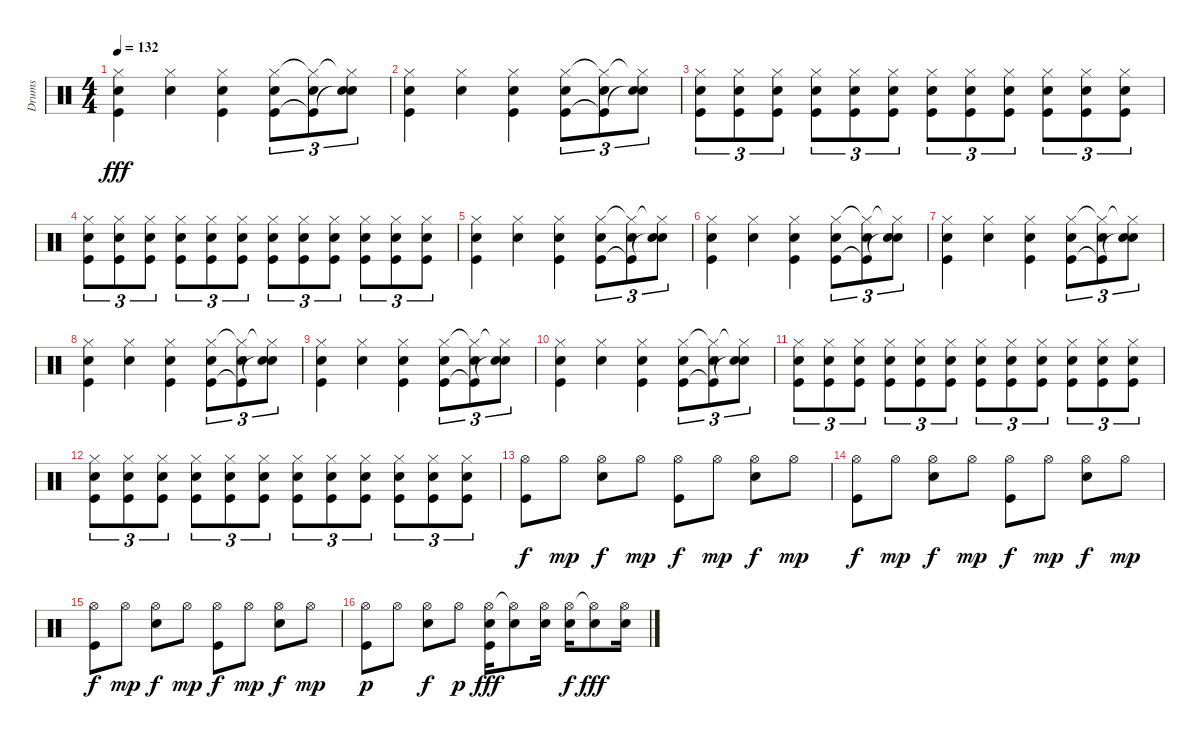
\track ("Drums" "Drums") {instrument percussion}
\staff {score}
\articulation defaults
\ts (4 4)
\tempo 132
\clef neutral
\ks c
("Hi-Hat (closed)" "Snare (hit) 2" "Kick (hit)").4{dy fff} ("Hi-Hat (closed)" "Snare (hit) 2").4 ("Hi-Hat (closed)" "Snare (hit) 2" "Kick (hit)").4 ("Hi-Hat (closed)" "Snare (hit) 2" "Kick (hit)").8{tu (3 2)} ("Hi-Hat (closed)"{t} "Snare (hit) 2" "Kick (hit)"{t}).8{tu (3 2)} ("Hi-Hat (closed)"{t} "Snare (hit) 2" "Snare (hit)"{t}).8{tu (3 2)} |
("Hi-Hat (closed)" "Snare (hit) 2" "Kick (hit)").4 ("Hi-Hat (closed)" "Snare (hit) 2").4 ("Hi-Hat (closed)" "Snare (hit) 2" "Kick (hit)").4 ("Hi-Hat (closed)" "Snare (hit) 2" "Kick (hit)").8{tu (3 2)} ("Hi-Hat (closed)"{t} "Snare (hit) 2" "Kick (hit)"{t}).8{tu (3 2)} ("Hi-Hat (closed)"{t} "Snare (hit) 2" "Snare (hit)"{t}).8{tu (3 2)} |
("Hi-Hat (closed)" "Snare (hit) 2" "Kick (hit)").8{tu (3 2)} ("Hi-Hat (closed)" "Snare (hit) 2" "Kick (hit)").8{tu (3 2)} ("Hi-Hat (closed)" "Snare (hit) 2" "Kick (hit)").8{tu (3 2)} ("Hi-Hat (closed)" "Snare (hit) 2" "Kick (hit)").8{tu (3 2)} ("Hi-Hat (closed)" "Snare (hit) 2" "Kick (hit)").8{tu (3 2)} ("Hi-Hat (closed)" "Snare (hit) 2" "Kick (hit)").8{tu (3 2)} ("Hi-Hat (closed)" "Snare (hit) 2" "Kick (hit)").8{tu (3 2)} ("Hi-Hat (closed)" "Snare (hit) 2" "Kick (hit)").8{tu (3 2)} ("Hi-Hat (closed)" "Snare (hit) 2" "Kick (hit)").8{tu (3 2)} ("Hi-Hat (closed)" "Snare (hit) 2" "Kick (hit)").8{tu (3 2)} ("Hi-Hat (closed)" "Snare (hit) 2" "Kick (hit)").8{tu (3 2)} ("Hi-Hat (closed)" "Snare (hit) 2" "Kick (hit)").8{tu (3 2)} |
("Hi-Hat (closed)" "Snare (hit) 2" "Kick (hit)").8{tu (3 2)} ("Hi-Hat (closed)" "Snare (hit) 2" "Kick (hit)").8{tu (3 2)} ("Hi-Hat (closed)" "Snare (hit) 2" "Kick (hit)").8{tu (3 2)} ("Hi-Hat (closed)" "Snare (hit) 2" "Kick (hit)").8{tu (3 2)} ("Hi-Hat (closed)" "Snare (hit) 2" "Kick (hit)").8{tu (3 2)} ("Hi-Hat (closed)" "Snare (hit) 2" "Kick (hit)").8{tu (3 2)} ("Hi-Hat (closed)" "Snare (hit) 2" "Kick (hit)").8{tu (3 2)} ("Hi-Hat (closed)" "Snare (hit) 2" "Kick (hit)").8{tu (3 2)} ("Hi-Hat (closed)" "Snare (hit) 2" "Kick (hit)").8{tu (3 2)} ("Hi-Hat (closed)" "Snare (hit) 2" "Kick (hit)").8{tu (3 2)} ("Hi-Hat (closed)" "Snare (hit) 2" "Kick (hit)").8{tu (3 2)} ("Hi-Hat (closed)" "Snare (hit) 2" "Kick (hit)").8{tu (3 2)} |
("Hi-Hat (closed)" "Snare (hit) 2" "Kick (hit)").4 ("Hi-Hat (closed)" "Snare (hit) 2").4 ("Hi-Hat (closed)" "Snare (hit) 2" "Kick (hit)").4 ("Hi-Hat (closed)" "Snare (hit) 2" "Kick (hit)").8{tu (3 2)} ("Hi-Hat (closed)"{t} "Snare (hit) 2" "Kick (hit)"{t}).8{tu (3 2)} ("Hi-Hat (closed)"{t} "Snare (hit) 2" "Snare (hit)"{t}).8{tu (3 2)} |
("Hi-Hat (closed)" "Snare (hit) 2" "Kick (hit)").4 ("Hi-Hat (closed)" "Snare (hit) 2").4 ("Hi-Hat (closed)" "Snare (hit) 2" "Kick (hit)").4 ("Hi-Hat (closed)" "Snare (hit) 2" "Kick (hit)").8{tu (3 2)} ("Hi-Hat (closed)"{t} "Snare (hit) 2" "Kick (hit)"{t}).8{tu (3 2)} ("Hi-Hat (closed)"{t} "Snare (hit) 2" "Snare (hit)"{t}).8{tu (3 2)} |
("Hi-Hat (closed)" "Snare (hit) 2" "Kick (hit)").4 ("Hi-Hat (closed)" "Snare (hit) 2").4 ("Hi-Hat (closed)" "Snare (hit) 2" "Kick (hit)").4 ("Hi-Hat (closed)" "Snare (hit) 2" "Kick (hit)").8{tu (3 2)} ("Hi-Hat (closed)"{t} "Snare (hit) 2" "Kick (hit)"{t}).8{tu (3 2)} ("Hi-Hat (closed)"{t} "Snare (hit) 2" "Snare (hit)"{t}).8{tu (3 2)} |
("Hi-Hat (closed)" "Snare (hit) 2" "Kick (hit)").4 ("Hi-Hat (closed)" "Snare (hit) 2").4 ("Hi-Hat (closed)" "Snare (hit) 2" "Kick (hit)").4 ("Hi-Hat (closed)" "Snare (hit) 2" "Kick (hit)").8{tu (3 2)} ("Hi-Hat (closed)"{t} "Snare (hit) 2" "Kick (hit)"{t}).8{tu (3 2)} ("Hi-Hat (closed)"{t} "Snare (hit) 2" "Snare (hit)"{t}).8{tu (3 2)} |
("Hi-Hat (closed)" "Snare (hit) 2" "Kick (hit)").4 ("Hi-Hat (closed)" "Snare (hit) 2").4 ("Hi-Hat (closed)" "Snare (hit) 2" "Kick (hit)").4 ("Hi-Hat (closed)" "Snare (hit) 2" "Kick (hit)").8{tu (3 2)} ("Hi-Hat (closed)"{t} "Snare (hit) 2" "Kick (hit)"{t}).8{tu (3 2)} ("Hi-Hat (closed)"{t} "Snare (hit) 2" "Snare (hit)"{t}).8{tu (3 2)} |
("Hi-Hat (closed)" "Snare (hit) 2" "Kick (hit)").4 ("Hi-Hat (closed)" "Snare (hit) 2").4 ("Hi-Hat (closed)" "Snare (hit) 2" "Kick (hit)").4 ("Hi-Hat (closed)" "Snare (hit) 2" "Kick (hit)").8{tu (3 2)} ("Hi-Hat (closed)"{t} "Snare (hit) 2" "Kick (hit)"{t}).8{tu (3 2)} ("Hi-Hat (closed)"{t} "Snare (hit) 2" "Snare (hit)"{t}).8{tu (3 2)} |
("Hi-Hat (closed)" "Snare (hit) 2" "Kick (hit)").8{tu (3 2)} ("Hi-Hat (closed)" "Snare (hit) 2" "Kick (hit)").8{tu (3 2)} ("Hi-Hat (closed)" "Snare (hit) 2" "Kick (hit)").8{tu (3 2)} ("Hi-Hat (closed)" "Snare (hit) 2" "Kick (hit)").8{tu (3 2)} ("Hi-Hat (closed)" "Snare (hit) 2" "Kick (hit)").8{tu (3 2)} ("Hi-Hat (closed)" "Snare (hit) 2" "Kick (hit)").8{tu (3 2)} ("Hi-Hat (closed)" "Snare (hit) 2" "Kick (hit)").8{tu (3 2)} ("Hi-Hat (closed)" "Snare (hit) 2" "Kick (hit)").8{tu (3 2)} ("Hi-Hat (closed)" "Snare (hit) 2" "Kick (hit)").8{tu (3 2)} ("Hi-Hat (closed)" "Snare (hit) 2" "Kick (hit)").8{tu (3 2)} ("Hi-Hat (closed)" "Snare (hit) 2" "Kick (hit)").8{tu (3 2)} ("Hi-Hat (closed)" "Snare (hit) 2" "Kick (hit)").8{tu (3 2)} |
("Hi-Hat (closed)" "Snare (hit) 2" "Kick (hit)").8{tu (3 2)} ("Hi-Hat (closed)" "Snare (hit) 2" "Kick (hit)").8{tu (3 2)} ("Hi-Hat (closed)" "Snare (hit) 2" "Kick (hit)").8{tu (3 2)} ("Hi-Hat (closed)" "Snare (hit) 2" "Kick (hit)").8{tu (3 2)} ("Hi-Hat (closed)" "Snare (hit) 2" "Kick (hit)").8{tu (3 2)} ("Hi-Hat (closed)" "Snare (hit) 2" "Kick (hit)").8{tu (3 2)} ("Hi-Hat (closed)" "Snare (hit) 2" "Kick (hit)").8{tu (3 2)} ("Hi-Hat (closed)" "Snare (hit) 2" "Kick (hit)").8{tu (3 2)} ("Hi-Hat (closed)" "Snare (hit) 2" "Kick (hit)").8{tu (3 2)} ("Hi-Hat (closed)" "Snare (hit) 2" "Kick (hit)").8{tu (3 2)} ("Hi-Hat (closed)" "Snare (hit) 2" "Kick (hit)").8{tu (3 2)} ("Hi-Hat (closed)" "Snare (hit) 2" "Kick (hit)").8{tu (3 2)} |
("Hi-Hat (open)" "Kick (hit)").8{dy f} "Hi-Hat (open)".8{dy mp} ("Hi-Hat (open)" "Snare (hit) 2").8{dy f} "Hi-Hat (open)".8{dy mp} ("Hi-Hat (open)" "Kick (hit)").8{dy f} "Hi-Hat (open)".8{dy mp} ("Hi-Hat (open)" "Snare (hit) 2").8{dy f} "Hi-Hat (open)".8{dy mp} |
("Hi-Hat (open)" "Kick (hit)").8{dy f} "Hi-Hat (open)".8{dy mp} ("Hi-Hat (open)" "Snare (hit) 2").8{dy f} "Hi-Hat (open)".8{dy mp} ("Hi-Hat (open)" "Kick (hit)").8{dy f} "Hi-Hat (open)".8{dy mp} ("Hi-Hat (open)" "Snare (hit) 2").8{dy f} "Hi-Hat (open)".8{dy mp} |
("Hi-Hat (open)" "Kick (hit)").8{dy f} "Hi-Hat (open)".8{dy mp} ("Hi-Hat (open)" "Snare (hit) 2").8{dy f} "Hi-Hat (open)".8{dy mp} ("Hi-Hat (open)" "Kick (hit)").8{dy f} "Hi-Hat (open)".8{dy mp} ("Hi-Hat (open)" "Snare (hit) 2").8{dy f} "Hi-Hat (open)".8{dy mp} |
("Hi-Hat (open)" "Kick (hit)").8{dy p} "Hi-Hat (open)".8 ("Hi-Hat (open)" "Snare (hit) 2").8{dy f} "Hi-Hat (open)".8{dy p} ("Hi-Hat (open)" "Snare (hit) 2" "Kick (hit)").16{dy fff} ("Hi-Hat (open)"{t} "Snare (hit) 2").8 ("Hi-Hat (open)" "Snare (hit) 2").16 ("Hi-Hat (open)" "Snare (hit) 2").16{dy f} ("Hi-Hat (open)"{t} "Snare (hit) 2").8{dy fff} ("Hi-Hat (open)" "Snare (hit) 2").16
